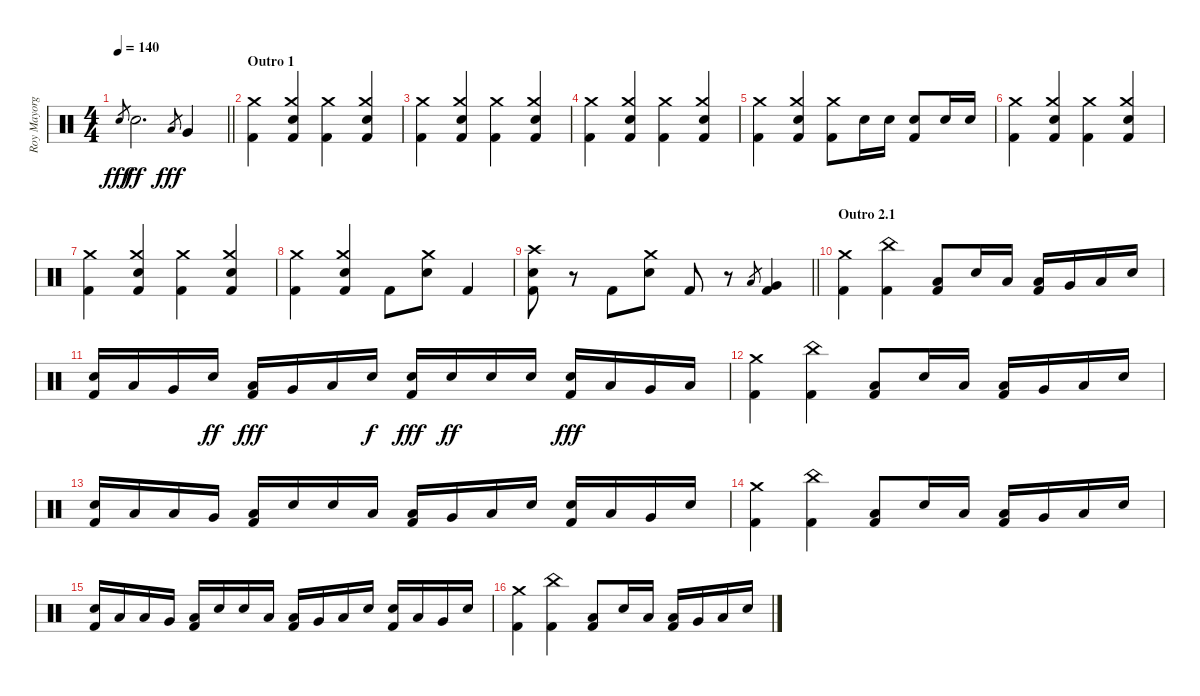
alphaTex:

\track ("Roy Mayorga" "Roy Mayorg") {instrument percussion}
\staff {score}
\articulation defaults
\ts (4 4)
\tempo 140
\clef neutral
\barLineRight lightlight
\ks c "Electric Snare (hit)".8{gr dy fff} "Electric Snare (hit)".2{d dy ff} "Low Floor Tom (hit)".8{gr dy fff} "Very Low Tom (hit)".4
|
\section ("" "Outro 1")
("Crash medium (hit)" "Kick (hit) 2").4 ("Crash medium (hit)" "Electric Snare (hit)" "Kick (hit) 2").4 ("Crash medium (hit)" "Kick (hit) 2").4 ("Crash medium (hit)" "Electric Snare (hit)" "Kick (hit) 2").4 |
("Crash medium (hit)" "Kick (hit) 2").4 ("Crash medium (hit)" "Electric Snare (hit)" "Kick (hit) 2").4 ("Crash medium (hit)" "Kick (hit) 2").4 ("Crash medium (hit)" "Electric Snare (hit)" "Kick (hit) 2").4 |
("Crash medium (hit)" "Kick (hit) 2").4 ("Crash medium (hit)" "Electric Snare (hit)" "Kick (hit) 2").4 ("Crash medium (hit)" "Kick (hit) 2").4 ("Crash medium (hit)" "Electric Snare (hit)" "Kick (hit) 2").4 |
("Crash medium (hit)" "Kick (hit) 2").4 ("Crash medium (hit)" "Electric Snare (hit)" "Kick (hit) 2").4 ("Crash medium (hit)" "Kick (hit) 2").8 "Electric Snare (hit)".16 "Electric Snare (hit)".16 ("Electric Snare (hit)" "Kick (hit) 2").8 "Electric Snare (hit)".16 "Electric Snare (hit)".16 |
("Crash medium (hit)" "Kick (hit) 2").4 ("Crash medium (hit)" "Electric Snare (hit)" "Kick (hit) 2").4 ("Crash medium (hit)" "Kick (hit) 2").4 ("Crash medium (hit)" "Electric Snare (hit)" "Kick (hit) 2").4 |
("Crash medium (hit)" "Kick (hit) 2").4 ("Crash medium (hit)" "Electric Snare (hit)" "Kick (hit) 2").4 ("Crash medium (hit)" "Kick (hit) 2").4 ("Crash medium (hit)" "Electric Snare (hit)" "Kick (hit) 2").4 |
("Crash medium (hit)" "Kick (hit) 2").4 ("Crash medium (hit)" "Electric Snare (hit)" "Kick (hit) 2").4 "Kick (hit) 2".8 ("Crash medium (hit)" "Electric Snare (hit)").8 "Kick (hit) 2".4 |
\barLineRight lightlight
("Crash high (hit)" "Electric Snare (hit)" "Kick (hit) 2").8 r.8 "Kick (hit) 2".8 ("Crash medium (hit)" "Electric Snare (hit)").8 "Kick (hit) 2".8 r.8 "Low Floor Tom (hit)".8{gr} ("Very Low Tom (hit)" "Kick (hit) 2").4 |
\section ("" "Outro 2.1")
("Crash medium (hit)" "Kick (hit) 2").4 ("China (hit)" "Kick (hit) 2").4 ("Low Tom (hit)" "Kick (hit) 2").8 "Electric Snare (hit)".16 "Low Tom (hit)".16 ("Low Tom (hit)" "Kick (hit) 2").16 "Very Low Tom (hit)".16 "Low Floor Tom (hit)".16 "Electric Snare (hit)".16 |
("Electric Snare (hit)" "Kick (hit) 2").16 "Low Tom (hit)".16 "Very Low Tom (hit)".16 "Electric Snare (hit)".16{dy ff} ("Low Tom (hit)" "Kick (hit) 2").16{dy fff} "Very Low Tom (hit)".16 "Low Floor Tom (hit)".16 "Electric Snare (hit)".16{dy f} ("Electric Snare (hit)" "Kick (hit) 2").16{dy fff} "Electric Snare (hit)".16{dy ff} "Electric Snare (hit)".16 "Electric Snare (hit)".16 ("Electric Snare (hit)" "Kick (hit) 2").16{dy fff} "Low Tom (hit)".16 "Very Low Tom (hit)".16 "Low Floor Tom (hit)".16 |
("Crash medium (hit)" "Kick (hit) 2").4 ("China (hit)" "Kick (hit) 2").4 ("Low Tom (hit)" "Kick (hit) 2").8 "Electric Snare (hit)".16 "Low Tom (hit)".16 ("Low Tom (hit)" "Kick (hit) 2").16 "Very Low Tom (hit)".16 "Low Floor Tom (hit)".16 "Electric Snare (hit)".16 |
("Electric Snare (hit)" "Kick (hit) 2").16 "Low Tom (hit)".16 "Low Tom (hit)".16 "Very Low Tom (hit)".16 ("Low Floor Tom (hit)" "Kick (hit) 2").16 "Electric Snare (hit)".16 "Electric Snare (hit)".16 "Low Tom (hit)".16 ("Low Tom (hit)" "Kick (hit) 2").16 "Very Low Tom (hit)".16 "Low Floor Tom (hit)".16 "Electric Snare (hit)".16 ("Electric Snare (hit)" "Kick (hit) 2").16 "Low Tom (hit)".16 "Very Low Tom (hit)".16 "Electric Snare (hit)".16 |
("Crash medium (hit)" "Kick (hit) 2").4 ("China (hit)" "Kick (hit) 2").4 ("Low Tom (hit)" "Kick (hit) 2").8 "Electric Snare (hit)".16 "Low Tom (hit)".16 ("Low Tom (hit)" "Kick (hit) 2").16 "Very Low Tom (hit)".16 "Low Floor Tom (hit)".16 "Electric Snare (hit)".16 |
("Electric Snare (hit)" "Kick (hit) 2").16 "Low Tom (hit)".16 "Low Tom (hit)".16 "Very Low Tom (hit)".16 ("Low Floor Tom (hit)" "Kick (hit) 2").16 "Electric Snare (hit)".16 "Electric Snare (hit)".16 "Low Tom (hit)".16 ("Low Tom (hit)" "Kick (hit) 2").16 "Very Low Tom (hit)".16 "Low Floor Tom (hit)".16 "Electric Snare (hit)".16 ("Electric Snare (hit)" "Kick (hit) 2").16 "Low Tom (hit)".16 "Very Low Tom (hit)".16 "Electric Snare (hit)".16 |
("Crash medium (hit)" "Kick (hit) 2").4 ("China (hit)" "Kick (hit) 2").4 ("Low Tom (hit)" "Kick (hit) 2").8 "Electric Snare (hit)".16 "Low Tom (hit)".16 ("Low Tom (hit)" "Kick (hit) 2").16 "Very Low Tom (hit)".16 "Low Floor Tom (hit)".16 "Electric Snare (hit)".16
